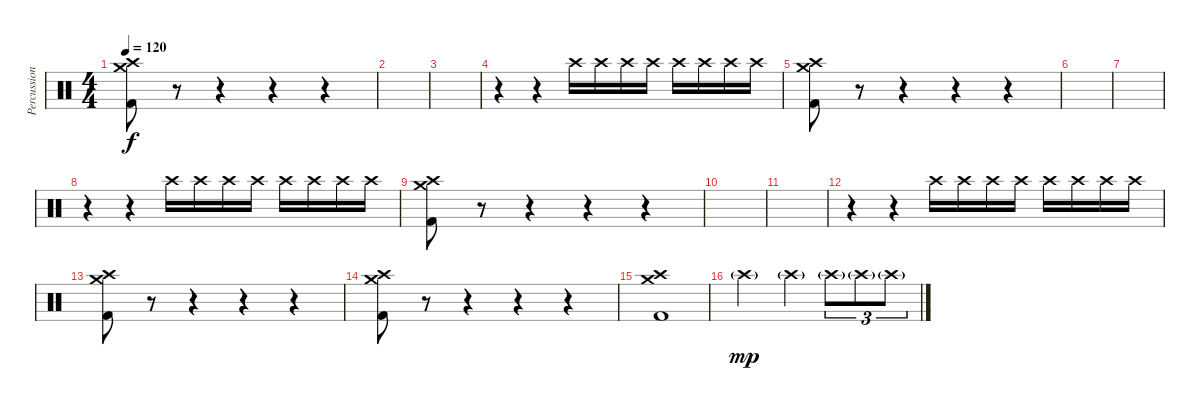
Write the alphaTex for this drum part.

\track ("Percussion" "Percussion") {instrument percussion}
\staff {score}
\articulation defaults
\ts (4 4)
\tempo 120
\clef neutral
\ks c
("Crash high (hit)" "Crash medium (hit)" "Kick (hit) 2").8{dy f} r.8 r.4 r.4 r.4 |
|
|
r.4 r.4{volume 0} "Crash high (hit)".16{volume 13} "Crash high (hit)".16 "Crash high (hit)".16 "Crash high (hit)".16 "Crash high (hit)".16 "Crash high (hit)".16 "Crash high (hit)".16 "Crash high (hit)".16 |
("Crash high (hit)" "Crash medium (hit)" "Kick (hit) 2").8 r.8 r.4 r.4 r.4 |
|
|
r.4 r.4{volume 0} "Crash high (hit)".16{volume 13} "Crash high (hit)".16 "Crash high (hit)".16 "Crash high (hit)".16 "Crash high (hit)".16 "Crash high (hit)".16 "Crash high (hit)".16 "Crash high (hit)".16 |
("Crash high (hit)" "Crash medium (hit)" "Kick (hit) 2").8 r.8 r.4 r.4 r.4 |
|
|
r.4 r.4{volume 0} "Crash high (hit)".16{volume 13} "Crash high (hit)".16 "Crash high (hit)".16 "Crash high (hit)".16 "Crash high (hit)".16 "Crash high (hit)".16 "Crash high (hit)".16 "Crash high (hit)".16 |
("Crash high (hit)" "Crash medium (hit)" "Kick (hit) 2").8 r.8 r.4 r.4 r.4 |
("Crash high (hit)" "Crash medium (hit)" "Kick (hit) 2").8 r.8 r.4 r.4 r.4 |
("Crash high (hit)" "Crash medium (hit)" "Kick (hit) 2").1 |
"Crash high (hit)"{g}.2{dy mp} "Crash high (hit)"{g}.4 "Crash high (hit)"{g}.8{tu (3 2)} "Crash high (hit)"{g}.8{tu (3 2)} "Crash high (hit)"{g}.8{tu (3 2)}
